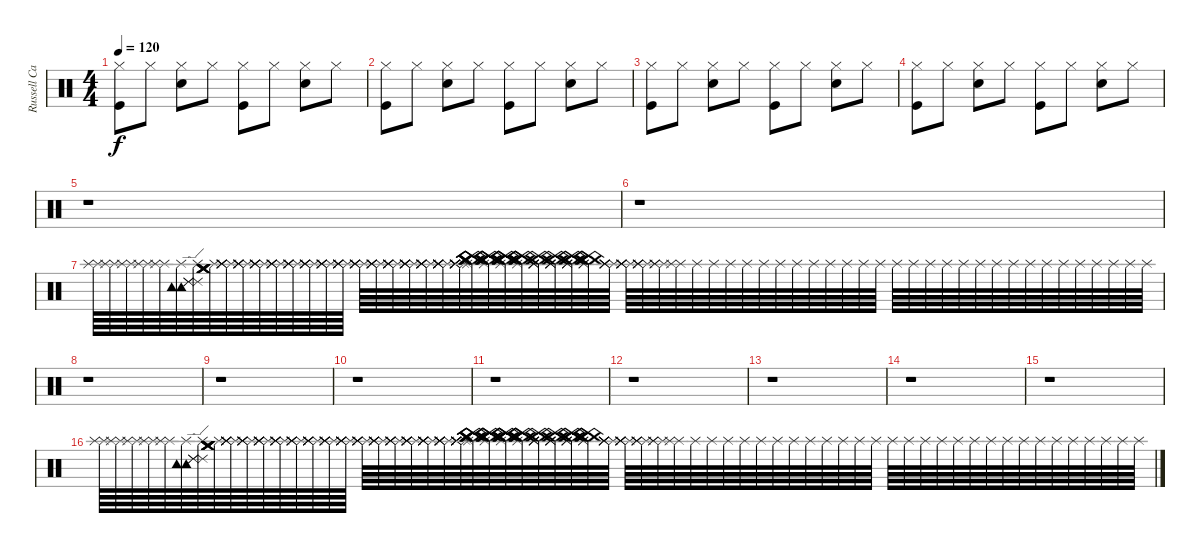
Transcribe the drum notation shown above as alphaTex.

\track ("Russell Cannon" "Russell Ca") {instrument percussion}
\staff {score}
\articulation defaults
\ts (4 4)
\tempo 120
\clef neutral
\ks c
("Hi-Hat (closed)" "Kick (hit)").8{dy f} "Hi-Hat (closed)".8 ("Hi-Hat (closed)" "Electric Snare (hit)").8 "Hi-Hat (closed)".8 ("Hi-Hat (closed)" "Kick (hit)").8 "Hi-Hat (closed)".8 ("Hi-Hat (closed)" "Electric Snare (hit)").8 "Hi-Hat (closed)".8 |
("Hi-Hat (closed)" "Kick (hit)").8 "Hi-Hat (closed)".8 ("Hi-Hat (closed)" "Electric Snare (hit)").8 "Hi-Hat (closed)".8 ("Hi-Hat (closed)" "Kick (hit)").8 "Hi-Hat (closed)".8 ("Hi-Hat (closed)" "Electric Snare (hit)").8 "Hi-Hat (closed)".8 |
("Hi-Hat (closed)" "Kick (hit)").8 "Hi-Hat (closed)".8 ("Hi-Hat (closed)" "Electric Snare (hit)").8 "Hi-Hat (closed)".8 ("Hi-Hat (closed)" "Kick (hit)").8 "Hi-Hat (closed)".8 ("Hi-Hat (closed)" "Electric Snare (hit)").8 "Hi-Hat (closed)".8 |
("Hi-Hat (closed)" "Kick (hit)").8 "Hi-Hat (closed)".8 ("Hi-Hat (closed)" "Electric Snare (hit)").8 "Hi-Hat (closed)".8 ("Hi-Hat (closed)" "Kick (hit)").8 "Hi-Hat (closed)".8 ("Hi-Hat (closed)" "Electric Snare (hit)").8 "Hi-Hat (closed)".8 |
r.1 |
r.1 |
("Splash (hit)" "Splash (hit)").64 ("Splash (hit)" "Splash (hit)").64 ("Splash (hit)" "Splash (hit)").64 ("Splash (hit)" "Splash (hit)").64 ("Splash (hit)" "Splash (hit)").64 ("Splash (hit)" "Tambourine (hit)" "Tambourine (hit)").64 ("Splash (hit)" "Ride (edge) 2" "Ride (edge) 2" "Ride (edge) 2").64 ("Splash (hit)" "Crash medium (hit)" "Crash medium (hit)" "Crash medium (hit)" "Crash medium (hit)").64 ("Splash (hit)" "Splash (hit)" "Splash (hit)" "Splash (hit)" "Splash (hit)").64 ("Splash (hit)" "Splash (hit)" "Splash (hit)" "Splash (hit)" "Splash (hit)").64 ("Splash (hit)" "Splash (hit)" "Splash (hit)" "Splash (hit)" "Splash (hit)").64 ("Splash (hit)" "Splash (hit)" "Splash (hit)" "Splash (hit)" "Splash (hit)").64 ("Splash (hit)" "Splash (hit)" "Splash (hit)" "Splash (hit)" "Splash (hit)").64 ("Splash (hit)" "Splash (hit)" "Splash (hit)" "Splash (hit)" "Splash (hit)").64 ("Splash (hit)" "Splash (hit)" "Splash (hit)" "Splash (hit)" "Splash (hit)").64 ("Splash (hit)" "Splash (hit)" "Splash (hit)" "Splash (hit)" "Splash (hit)").64 ("Splash (hit)" "Splash (hit)" "Splash (hit)" "Splash (hit)" "Splash (hit)").64 ("Splash (hit)" "Splash (hit)" "Splash (hit)" "Splash (hit)" "Splash (hit)").64 ("Splash (hit)" "Splash (hit)" "Splash (hit)" "Splash (hit)" "Splash (hit)").64 ("Splash (hit)" "Splash (hit)" "Splash (hit)" "Splash (hit)" "Splash (hit)" "Splash (hit)").64 ("Splash (hit)" "Splash (hit)" "Splash (hit)" "Splash (hit)" "Splash (hit)" "Splash (hit)").64 ("Splash (hit)" "Splash (hit)" "Splash (hit)" "Splash (hit)" "Splash (hit)" "Splash (hit)").64 ("Splash (hit)" "Splash (hit)" "Splash (hit)" "Splash (hit)" "Splash (hit)" "Splash (hit)").64 ("Splash (hit)" "China (hit)" "China (hit)" "China (hit)" "China (hit)" "China (hit)").64 ("Splash (hit)" "China (hit)" "China (hit)" "China (hit)" "China (hit)" "China (hit)").64 ("Splash (hit)" "China (hit)" "China (hit)" "China (hit)" "China (hit)" "China (hit)").64 ("Splash (hit)" "China (hit)" "China (hit)" "China (hit)" "China (hit)" "China (hit)").64 ("Splash (hit)" "Splash (hit)" "Splash (hit)" "Splash (hit)" "China (hit)" "China (hit)").64 ("Splash (hit)" "Splash (hit)" "Splash (hit)" "Splash (hit)" "China (hit)" "China (hit)").64 ("Splash (hit)" "Splash (hit)" "Splash (hit)" "China (hit)" "China (hit)" "China (hit)").64 ("Splash (hit)" "Splash (hit)" "China (hit)" "China (hit)" "China (hit)" "China (hit)").64 ("Splash (hit)" "Splash (hit)" "Splash (hit)" "Splash (hit)" "Splash (hit)").64 ("Splash (hit)" "Splash (hit)" "Splash (hit)" "Splash (hit)" "Splash (hit)").64 ("Splash (hit)" "Splash (hit)" "Splash (hit)" "Splash (hit)").64 ("Splash (hit)" "Splash (hit)" "Splash (hit)").64 ("Splash (hit)" "Splash (hit)").64 "Splash (hit)".64 "Splash (hit)".64 "Splash (hit)".64 "Splash (hit)".64 "Splash (hit)".64 "Splash (hit)".64 "Splash (hit)".64 "Splash (hit)".64 "Splash (hit)".64 "Splash (hit)".64 "Splash (hit)".64 "Splash (hit)".64 "Splash (hit)".64 "Splash (hit)".64 "Splash (hit)".64 "Splash (hit)".64 "Splash (hit)".64 "Splash (hit)".64 "Splash (hit)".64 "Splash (hit)".64 "Splash (hit)".64 "Splash (hit)".64 "Splash (hit)".64 "Splash (hit)".64 "Splash (hit)".64 "Splash (hit)".64 "Splash (hit)".64 "Splash (hit)".64 |
r.1 |
r.1 |
r.1 |
r.1 |
r.1 |
r.1 |
r.1 |
r.1 |
("Splash (hit)" "Splash (hit)").64 ("Splash (hit)" "Splash (hit)").64 ("Splash (hit)" "Splash (hit)").64 ("Splash (hit)" "Splash (hit)").64 ("Splash (hit)" "Splash (hit)").64 ("Splash (hit)" "Tambourine (hit)" "Tambourine (hit)").64 ("Splash (hit)" "Ride (edge) 2" "Ride (edge) 2" "Ride (edge) 2").64 ("Splash (hit)" "Crash medium (hit)" "Crash medium (hit)" "Crash medium (hit)" "Crash medium (hit)").64 ("Splash (hit)" "Splash (hit)" "Splash (hit)" "Splash (hit)" "Splash (hit)").64 ("Splash (hit)" "Splash (hit)" "Splash (hit)" "Splash (hit)" "Splash (hit)").64 ("Splash (hit)" "Splash (hit)" "Splash (hit)" "Splash (hit)" "Splash (hit)").64 ("Splash (hit)" "Splash (hit)" "Splash (hit)" "Splash (hit)" "Splash (hit)").64 ("Splash (hit)" "Splash (hit)" "Splash (hit)" "Splash (hit)" "Splash (hit)").64 ("Splash (hit)" "Splash (hit)" "Splash (hit)" "Splash (hit)" "Splash (hit)").64 ("Splash (hit)" "Splash (hit)" "Splash (hit)" "Splash (hit)" "Splash (hit)").64 ("Splash (hit)" "Splash (hit)" "Splash (hit)" "Splash (hit)" "Splash (hit)").64 ("Splash (hit)" "Splash (hit)" "Splash (hit)" "Splash (hit)" "Splash (hit)").64 ("Splash (hit)" "Splash (hit)" "Splash (hit)" "Splash (hit)" "Splash (hit)").64 ("Splash (hit)" "Splash (hit)" "Splash (hit)" "Splash (hit)" "Splash (hit)").64 ("Splash (hit)" "Splash (hit)" "Splash (hit)" "Splash (hit)" "Splash (hit)" "Splash (hit)").64 ("Splash (hit)" "Splash (hit)" "Splash (hit)" "Splash (hit)" "Splash (hit)" "Splash (hit)").64 ("Splash (hit)" "Splash (hit)" "Splash (hit)" "Splash (hit)" "Splash (hit)" "Splash (hit)").64 ("Splash (hit)" "Splash (hit)" "Splash (hit)" "Splash (hit)" "Splash (hit)" "Splash (hit)").64 ("Splash (hit)" "China (hit)" "China (hit)" "China (hit)" "China (hit)" "China (hit)").64 ("Splash (hit)" "China (hit)" "China (hit)" "China (hit)" "China (hit)" "China (hit)").64 ("Splash (hit)" "China (hit)" "China (hit)" "China (hit)" "China (hit)" "China (hit)").64 ("Splash (hit)" "China (hit)" "China (hit)" "China (hit)" "China (hit)" "China (hit)").64 ("Splash (hit)" "Splash (hit)" "Splash (hit)" "Splash (hit)" "China (hit)" "China (hit)").64 ("Splash (hit)" "Splash (hit)" "Splash (hit)" "Splash (hit)" "China (hit)" "China (hit)").64 ("Splash (hit)" "Splash (hit)" "Splash (hit)" "China (hit)" "China (hit)" "China (hit)").64 ("Splash (hit)" "Splash (hit)" "China (hit)" "China (hit)" "China (hit)" "China (hit)").64 ("Splash (hit)" "Splash (hit)" "Splash (hit)" "Splash (hit)" "Splash (hit)").64 ("Splash (hit)" "Splash (hit)" "Splash (hit)" "Splash (hit)" "Splash (hit)").64 ("Splash (hit)" "Splash (hit)" "Splash (hit)" "Splash (hit)").64 ("Splash (hit)" "Splash (hit)" "Splash (hit)").64 ("Splash (hit)" "Splash (hit)").64 "Splash (hit)".64 "Splash (hit)".64 "Splash (hit)".64 "Splash (hit)".64 "Splash (hit)".64 "Splash (hit)".64 "Splash (hit)".64 "Splash (hit)".64 "Splash (hit)".64 "Splash (hit)".64 "Splash (hit)".64 "Splash (hit)".64 "Splash (hit)".64 "Splash (hit)".64 "Splash (hit)".64 "Splash (hit)".64 "Splash (hit)".64 "Splash (hit)".64 "Splash (hit)".64 "Splash (hit)".64 "Splash (hit)".64 "Splash (hit)".64 "Splash (hit)".64 "Splash (hit)".64 "Splash (hit)".64 "Splash (hit)".64 "Splash (hit)".64 "Splash (hit)".64
